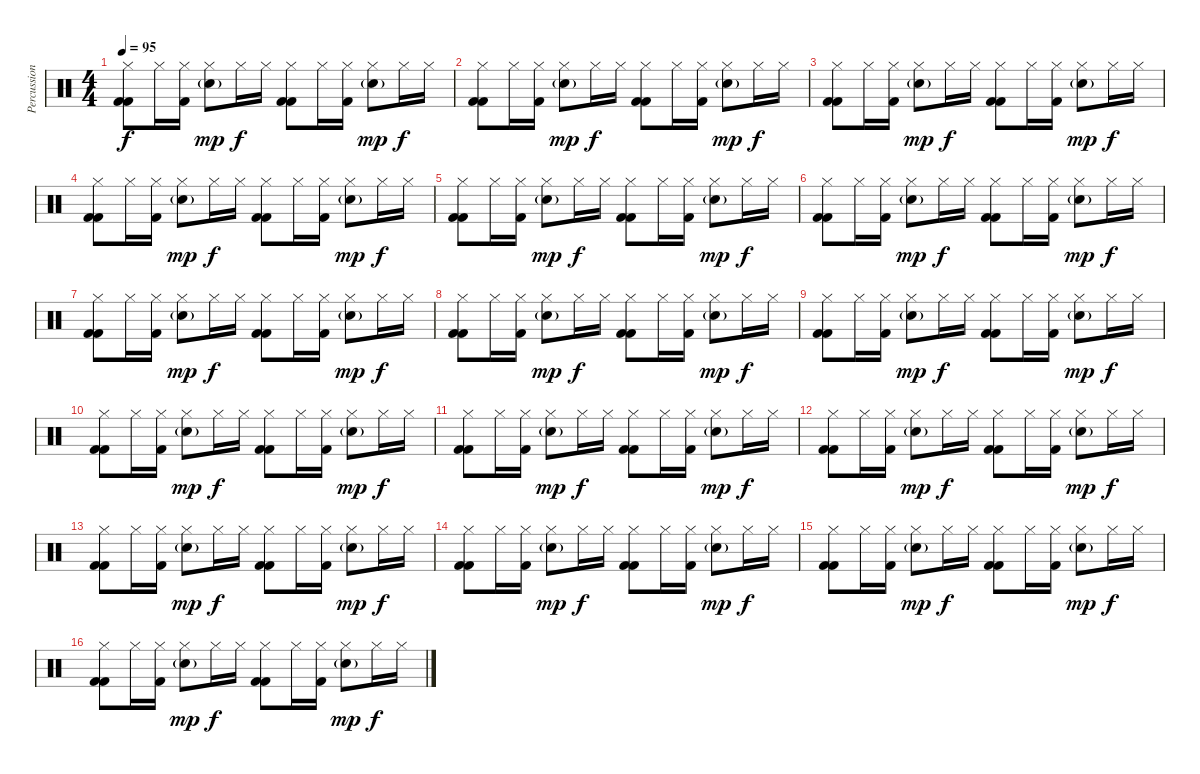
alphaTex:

\track ("Percussion" "Percussion") {instrument percussion}
\staff {score}
\articulation defaults
\ts (4 4)
\tempo 95
\clef neutral
\ks c
("Kick (hit) 2" "Kick (hit) 2" "Hi-Hat (closed)").8{dy f} "Hi-Hat (closed)".16 ("Kick (hit) 2" "Hi-Hat (closed)").16 ("Snare (hit) 2"{g} "Hi-Hat (closed)").8{dy mp} "Hi-Hat (closed)".16{dy f} "Hi-Hat (closed)".16 ("Kick (hit) 2" "Kick (hit) 2" "Hi-Hat (closed)").8 "Hi-Hat (closed)".16 ("Kick (hit) 2" "Hi-Hat (closed)").16 ("Snare (hit) 2"{g} "Hi-Hat (closed)").8{dy mp} "Hi-Hat (closed)".16{dy f} "Hi-Hat (closed)".16 |
("Kick (hit) 2" "Kick (hit) 2" "Hi-Hat (closed)").8 "Hi-Hat (closed)".16 ("Kick (hit) 2" "Hi-Hat (closed)").16 ("Snare (hit) 2"{g} "Hi-Hat (closed)").8{dy mp} "Hi-Hat (closed)".16{dy f} "Hi-Hat (closed)".16 ("Kick (hit) 2" "Kick (hit) 2" "Hi-Hat (closed)").8 "Hi-Hat (closed)".16 ("Kick (hit) 2" "Hi-Hat (closed)").16 ("Snare (hit) 2"{g} "Hi-Hat (closed)").8{dy mp} "Hi-Hat (closed)".16{dy f} "Hi-Hat (closed)".16 |
("Kick (hit) 2" "Kick (hit) 2" "Hi-Hat (closed)").8 "Hi-Hat (closed)".16 ("Kick (hit) 2" "Hi-Hat (closed)").16 ("Snare (hit) 2"{g} "Hi-Hat (closed)").8{dy mp} "Hi-Hat (closed)".16{dy f} "Hi-Hat (closed)".16 ("Kick (hit) 2" "Kick (hit) 2" "Hi-Hat (closed)").8 "Hi-Hat (closed)".16 ("Kick (hit) 2" "Hi-Hat (closed)").16 ("Snare (hit) 2"{g} "Hi-Hat (closed)").8{dy mp} "Hi-Hat (closed)".16{dy f} "Hi-Hat (closed)".16 |
("Kick (hit) 2" "Kick (hit) 2" "Hi-Hat (closed)").8 "Hi-Hat (closed)".16 ("Kick (hit) 2" "Hi-Hat (closed)").16 ("Snare (hit) 2"{g} "Hi-Hat (closed)").8{dy mp} "Hi-Hat (closed)".16{dy f} "Hi-Hat (closed)".16 ("Kick (hit) 2" "Kick (hit) 2" "Hi-Hat (closed)").8 "Hi-Hat (closed)".16 ("Kick (hit) 2" "Hi-Hat (closed)").16 ("Snare (hit) 2"{g} "Hi-Hat (closed)").8{dy mp} "Hi-Hat (closed)".16{dy f} "Hi-Hat (closed)".16 |
("Kick (hit) 2" "Kick (hit) 2" "Hi-Hat (closed)").8 "Hi-Hat (closed)".16 ("Kick (hit) 2" "Hi-Hat (closed)").16 ("Snare (hit) 2"{g} "Hi-Hat (closed)").8{dy mp} "Hi-Hat (closed)".16{dy f} "Hi-Hat (closed)".16 ("Kick (hit) 2" "Kick (hit) 2" "Hi-Hat (closed)").8 "Hi-Hat (closed)".16 ("Kick (hit) 2" "Hi-Hat (closed)").16 ("Snare (hit) 2"{g} "Hi-Hat (closed)").8{dy mp} "Hi-Hat (closed)".16{dy f} "Hi-Hat (closed)".16 |
("Kick (hit) 2" "Kick (hit) 2" "Hi-Hat (closed)").8 "Hi-Hat (closed)".16 ("Kick (hit) 2" "Hi-Hat (closed)").16 ("Snare (hit) 2"{g} "Hi-Hat (closed)").8{dy mp} "Hi-Hat (closed)".16{dy f} "Hi-Hat (closed)".16 ("Kick (hit) 2" "Kick (hit) 2" "Hi-Hat (closed)").8 "Hi-Hat (closed)".16 ("Kick (hit) 2" "Hi-Hat (closed)").16 ("Snare (hit) 2"{g} "Hi-Hat (closed)").8{dy mp} "Hi-Hat (closed)".16{dy f} "Hi-Hat (closed)".16 |
("Kick (hit) 2" "Kick (hit) 2" "Hi-Hat (closed)").8 "Hi-Hat (closed)".16 ("Kick (hit) 2" "Hi-Hat (closed)").16 ("Snare (hit) 2"{g} "Hi-Hat (closed)").8{dy mp} "Hi-Hat (closed)".16{dy f} "Hi-Hat (closed)".16 ("Kick (hit) 2" "Kick (hit) 2" "Hi-Hat (closed)").8 "Hi-Hat (closed)".16 ("Kick (hit) 2" "Hi-Hat (closed)").16 ("Snare (hit) 2"{g} "Hi-Hat (closed)").8{dy mp} "Hi-Hat (closed)".16{dy f} "Hi-Hat (closed)".16 |
("Kick (hit) 2" "Kick (hit) 2" "Hi-Hat (closed)").8 "Hi-Hat (closed)".16 ("Kick (hit) 2" "Hi-Hat (closed)").16 ("Snare (hit) 2"{g} "Hi-Hat (closed)").8{dy mp} "Hi-Hat (closed)".16{dy f} "Hi-Hat (closed)".16 ("Kick (hit) 2" "Kick (hit) 2" "Hi-Hat (closed)").8 "Hi-Hat (closed)".16 ("Kick (hit) 2" "Hi-Hat (closed)").16 ("Snare (hit) 2"{g} "Hi-Hat (closed)").8{dy mp} "Hi-Hat (closed)".16{dy f} "Hi-Hat (closed)".16 |
("Kick (hit) 2" "Kick (hit) 2" "Hi-Hat (closed)").8 "Hi-Hat (closed)".16 ("Kick (hit) 2" "Hi-Hat (closed)").16 ("Snare (hit) 2"{g} "Hi-Hat (closed)").8{dy mp} "Hi-Hat (closed)".16{dy f} "Hi-Hat (closed)".16 ("Kick (hit) 2" "Kick (hit) 2" "Hi-Hat (closed)").8 "Hi-Hat (closed)".16 ("Kick (hit) 2" "Hi-Hat (closed)").16 ("Snare (hit) 2"{g} "Hi-Hat (closed)").8{dy mp} "Hi-Hat (closed)".16{dy f} "Hi-Hat (closed)".16 |
("Kick (hit) 2" "Kick (hit) 2" "Hi-Hat (closed)").8 "Hi-Hat (closed)".16 ("Kick (hit) 2" "Hi-Hat (closed)").16 ("Snare (hit) 2"{g} "Hi-Hat (closed)").8{dy mp} "Hi-Hat (closed)".16{dy f} "Hi-Hat (closed)".16 ("Kick (hit) 2" "Kick (hit) 2" "Hi-Hat (closed)").8 "Hi-Hat (closed)".16 ("Kick (hit) 2" "Hi-Hat (closed)").16 ("Snare (hit) 2"{g} "Hi-Hat (closed)").8{dy mp} "Hi-Hat (closed)".16{dy f} "Hi-Hat (closed)".16 |
("Kick (hit) 2" "Kick (hit) 2" "Hi-Hat (closed)").8 "Hi-Hat (closed)".16 ("Kick (hit) 2" "Hi-Hat (closed)").16 ("Snare (hit) 2"{g} "Hi-Hat (closed)").8{dy mp} "Hi-Hat (closed)".16{dy f} "Hi-Hat (closed)".16 ("Kick (hit) 2" "Kick (hit) 2" "Hi-Hat (closed)").8 "Hi-Hat (closed)".16 ("Kick (hit) 2" "Hi-Hat (closed)").16 ("Snare (hit) 2"{g} "Hi-Hat (closed)").8{dy mp} "Hi-Hat (closed)".16{dy f} "Hi-Hat (closed)".16 |
("Kick (hit) 2" "Kick (hit) 2" "Hi-Hat (closed)").8 "Hi-Hat (closed)".16 ("Kick (hit) 2" "Hi-Hat (closed)").16 ("Snare (hit) 2"{g} "Hi-Hat (closed)").8{dy mp} "Hi-Hat (closed)".16{dy f} "Hi-Hat (closed)".16 ("Kick (hit) 2" "Kick (hit) 2" "Hi-Hat (closed)").8 "Hi-Hat (closed)".16 ("Kick (hit) 2" "Hi-Hat (closed)").16 ("Snare (hit) 2"{g} "Hi-Hat (closed)").8{dy mp} "Hi-Hat (closed)".16{dy f} "Hi-Hat (closed)".16 |
("Kick (hit) 2" "Kick (hit) 2" "Hi-Hat (closed)").8 "Hi-Hat (closed)".16 ("Kick (hit) 2" "Hi-Hat (closed)").16 ("Snare (hit) 2"{g} "Hi-Hat (closed)").8{dy mp} "Hi-Hat (closed)".16{dy f} "Hi-Hat (closed)".16 ("Kick (hit) 2" "Kick (hit) 2" "Hi-Hat (closed)").8 "Hi-Hat (closed)".16 ("Kick (hit) 2" "Hi-Hat (closed)").16 ("Snare (hit) 2"{g} "Hi-Hat (closed)").8{dy mp} "Hi-Hat (closed)".16{dy f} "Hi-Hat (closed)".16 |
("Kick (hit) 2" "Kick (hit) 2" "Hi-Hat (closed)").8 "Hi-Hat (closed)".16 ("Kick (hit) 2" "Hi-Hat (closed)").16 ("Snare (hit) 2"{g} "Hi-Hat (closed)").8{dy mp} "Hi-Hat (closed)".16{dy f} "Hi-Hat (closed)".16 ("Kick (hit) 2" "Kick (hit) 2" "Hi-Hat (closed)").8 "Hi-Hat (closed)".16 ("Kick (hit) 2" "Hi-Hat (closed)").16 ("Snare (hit) 2"{g} "Hi-Hat (closed)").8{dy mp} "Hi-Hat (closed)".16{dy f} "Hi-Hat (closed)".16 |
("Kick (hit) 2" "Kick (hit) 2" "Hi-Hat (closed)").8 "Hi-Hat (closed)".16 ("Kick (hit) 2" "Hi-Hat (closed)").16 ("Snare (hit) 2"{g} "Hi-Hat (closed)").8{dy mp} "Hi-Hat (closed)".16{dy f} "Hi-Hat (closed)".16 ("Kick (hit) 2" "Kick (hit) 2" "Hi-Hat (closed)").8 "Hi-Hat (closed)".16 ("Kick (hit) 2" "Hi-Hat (closed)").16 ("Snare (hit) 2"{g} "Hi-Hat (closed)").8{dy mp} "Hi-Hat (closed)".16{dy f} "Hi-Hat (closed)".16 |
("Kick (hit) 2" "Kick (hit) 2" "Hi-Hat (closed)").8 "Hi-Hat (closed)".16 ("Kick (hit) 2" "Hi-Hat (closed)").16 ("Snare (hit) 2"{g} "Hi-Hat (closed)").8{dy mp} "Hi-Hat (closed)".16{dy f} "Hi-Hat (closed)".16 ("Kick (hit) 2" "Kick (hit) 2" "Hi-Hat (closed)").8 "Hi-Hat (closed)".16 ("Kick (hit) 2" "Hi-Hat (closed)").16 ("Snare (hit) 2"{g} "Hi-Hat (closed)").8{dy mp} "Hi-Hat (closed)".16{dy f} "Hi-Hat (closed)".16
